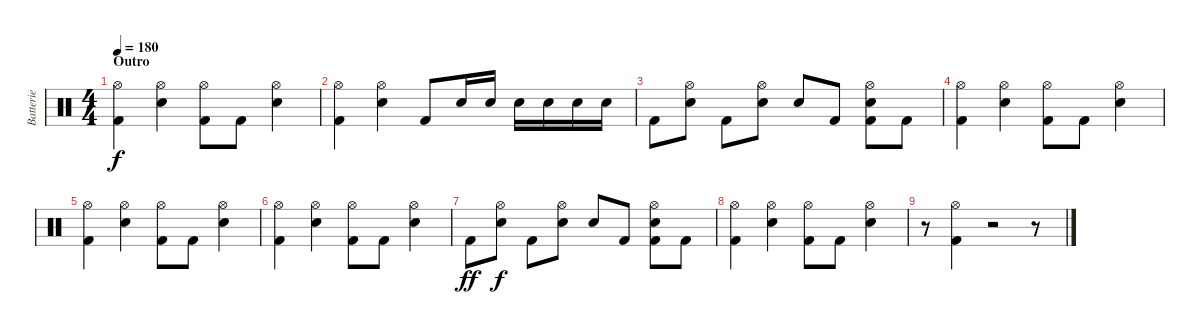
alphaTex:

\track ("Batterie" "Batterie") {instrument percussion}
\staff {score}
\articulation defaults
\ts (4 4)
\section ("" "Outro")
\tempo 180
\clef neutral
\ks c
("Hi-Hat (open)" "Kick (hit) 2").4{dy f} ("Hi-Hat (open)" "Electric Snare (hit)").4 ("Hi-Hat (open)" "Kick (hit) 2").8 "Kick (hit) 2".8 ("Hi-Hat (open)" "Electric Snare (hit)").4 |
("Hi-Hat (open)" "Kick (hit) 2").4 ("Hi-Hat (open)" "Electric Snare (hit)").4 "Kick (hit) 2".8 "Electric Snare (hit)".16 "Electric Snare (hit)".16 "Electric Snare (hit)".16 "Electric Snare (hit)".16 "Electric Snare (hit)".16 "Electric Snare (hit)".16 |
"Kick (hit) 2".8 ("Hi-Hat (open)" "Electric Snare (hit)").8 "Kick (hit) 2".8 ("Hi-Hat (open)" "Electric Snare (hit)").8 "Electric Snare (hit)".8 "Kick (hit) 2".8 ("Hi-Hat (open)" "Electric Snare (hit)" "Kick (hit) 2").8 "Kick (hit) 2".8 |
("Hi-Hat (open)" "Kick (hit) 2").4 ("Hi-Hat (open)" "Electric Snare (hit)").4 ("Hi-Hat (open)" "Kick (hit) 2").8 "Kick (hit) 2".8 ("Hi-Hat (open)" "Electric Snare (hit)").4 |
("Hi-Hat (open)" "Kick (hit) 2").4 ("Hi-Hat (open)" "Electric Snare (hit)").4 ("Hi-Hat (open)" "Kick (hit) 2").8 "Kick (hit) 2".8 ("Hi-Hat (open)" "Electric Snare (hit)").4 |
("Hi-Hat (open)" "Kick (hit) 2").4 ("Hi-Hat (open)" "Electric Snare (hit)").4 ("Hi-Hat (open)" "Kick (hit) 2").8 "Kick (hit) 2".8 ("Hi-Hat (open)" "Electric Snare (hit)").4 |
"Kick (hit) 2".8{dy ff} ("Hi-Hat (open)" "Electric Snare (hit)").8{dy f} "Kick (hit) 2".8 ("Hi-Hat (open)" "Electric Snare (hit)").8 "Electric Snare (hit)".8 "Kick (hit) 2".8 ("Hi-Hat (open)" "Electric Snare (hit)" "Kick (hit) 2").8 "Kick (hit) 2".8 |
("Hi-Hat (open)" "Kick (hit) 2").4 ("Hi-Hat (open)" "Electric Snare (hit)").4 ("Hi-Hat (open)" "Kick (hit) 2").8 "Kick (hit) 2".8 ("Hi-Hat (open)" "Electric Snare (hit)").4 |
r.8 ("Hi-Hat (open)" "Kick (hit) 2").4 r.2 r.8
